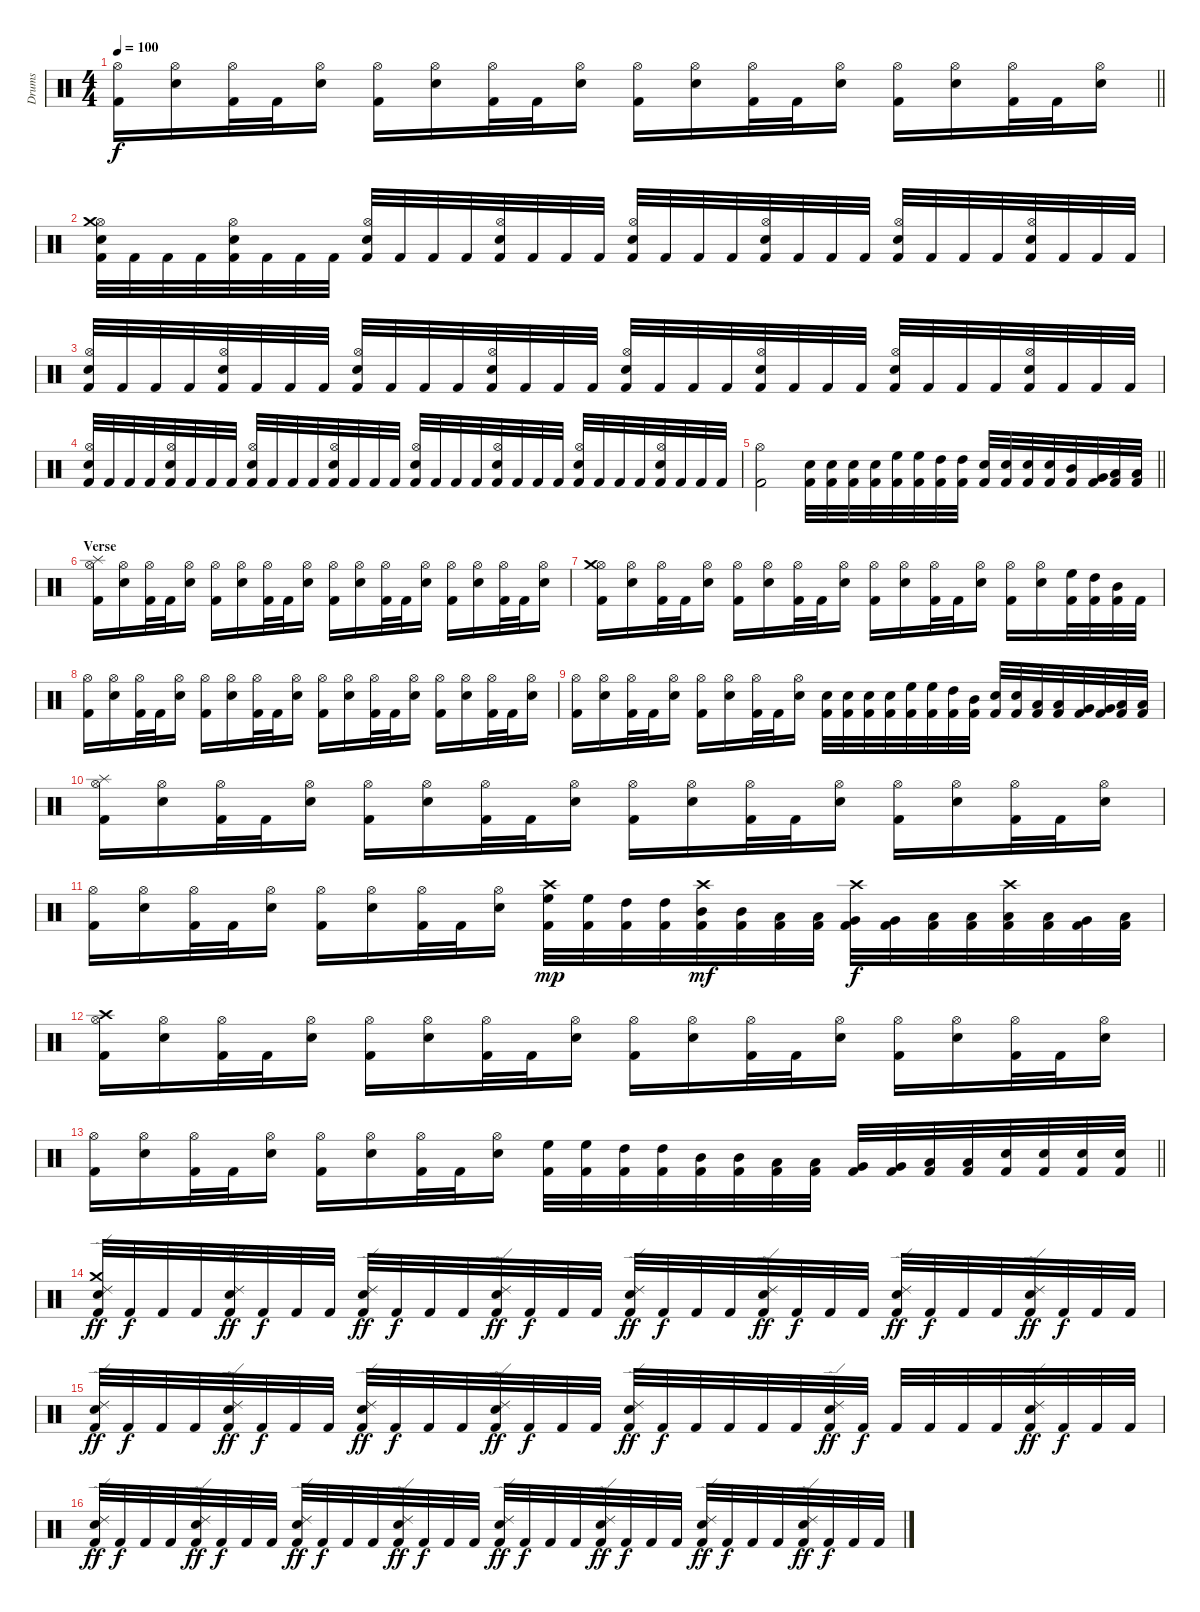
\track ("Drums" "Drums") {instrument percussion}
\staff {score}
\articulation defaults
\ts (4 4)
\tempo 100
\clef neutral
\barLineRight lightlight
\ks c
("Kick (hit) 2" "Hi-Hat (open)").16{dy f} ("Electric Snare (hit)" "Hi-Hat (open)").16 ("Kick (hit) 2" "Hi-Hat (open)").32 "Kick (hit) 2".32 ("Electric Snare (hit)" "Hi-Hat (open)").16 ("Kick (hit) 2" "Hi-Hat (open)").16 ("Electric Snare (hit)" "Hi-Hat (open)").16 ("Kick (hit) 2" "Hi-Hat (open)").32 "Kick (hit) 2".32 ("Electric Snare (hit)" "Hi-Hat (open)").16 ("Kick (hit) 2" "Hi-Hat (open)").16 ("Electric Snare (hit)" "Hi-Hat (open)").16 ("Kick (hit) 2" "Hi-Hat (open)").32 "Kick (hit) 2".32 ("Electric Snare (hit)" "Hi-Hat (open)").16 ("Kick (hit) 2" "Hi-Hat (open)").16 ("Electric Snare (hit)" "Hi-Hat (open)").16 ("Kick (hit) 2" "Hi-Hat (open)").32 "Kick (hit) 2".32 ("Electric Snare (hit)" "Hi-Hat (open)").16 |
\section ("" "")
("Kick (hit) 2" "Electric Snare (hit)" "Hi-Hat (open)" "Crash medium (hit)").32 "Kick (hit) 2".32 "Kick (hit) 2".32 "Kick (hit) 2".32 ("Kick (hit) 2" "Electric Snare (hit)" "Hi-Hat (open)").32 "Kick (hit) 2".32 "Kick (hit) 2".32 "Kick (hit) 2".32 ("Kick (hit) 2" "Electric Snare (hit)" "Hi-Hat (open)").32 "Kick (hit) 2".32 "Kick (hit) 2".32 "Kick (hit) 2".32 ("Kick (hit) 2" "Electric Snare (hit)" "Hi-Hat (open)").32 "Kick (hit) 2".32 "Kick (hit) 2".32 "Kick (hit) 2".32 ("Kick (hit) 2" "Electric Snare (hit)" "Hi-Hat (open)").32 "Kick (hit) 2".32 "Kick (hit) 2".32 "Kick (hit) 2".32 ("Kick (hit) 2" "Electric Snare (hit)" "Hi-Hat (open)").32 "Kick (hit) 2".32 "Kick (hit) 2".32 "Kick (hit) 2".32 ("Kick (hit) 2" "Electric Snare (hit)" "Hi-Hat (open)").32 "Kick (hit) 2".32 "Kick (hit) 2".32 "Kick (hit) 2".32 ("Kick (hit) 2" "Electric Snare (hit)" "Hi-Hat (open)").32 "Kick (hit) 2".32 "Kick (hit) 2".32 "Kick (hit) 2".32 |
("Kick (hit) 2" "Electric Snare (hit)" "Hi-Hat (open)").32 "Kick (hit) 2".32 "Kick (hit) 2".32 "Kick (hit) 2".32 ("Kick (hit) 2" "Electric Snare (hit)" "Hi-Hat (open)").32 "Kick (hit) 2".32 "Kick (hit) 2".32 "Kick (hit) 2".32 ("Kick (hit) 2" "Electric Snare (hit)" "Hi-Hat (open)").32 "Kick (hit) 2".32 "Kick (hit) 2".32 "Kick (hit) 2".32 ("Kick (hit) 2" "Electric Snare (hit)" "Hi-Hat (open)").32 "Kick (hit) 2".32 "Kick (hit) 2".32 "Kick (hit) 2".32 ("Kick (hit) 2" "Electric Snare (hit)" "Hi-Hat (open)").32 "Kick (hit) 2".32 "Kick (hit) 2".32 "Kick (hit) 2".32 ("Kick (hit) 2" "Electric Snare (hit)" "Hi-Hat (open)").32 "Kick (hit) 2".32 "Kick (hit) 2".32 "Kick (hit) 2".32 ("Kick (hit) 2" "Electric Snare (hit)" "Hi-Hat (open)").32 "Kick (hit) 2".32 "Kick (hit) 2".32 "Kick (hit) 2".32 ("Kick (hit) 2" "Electric Snare (hit)" "Hi-Hat (open)").32 "Kick (hit) 2".32 "Kick (hit) 2".32 "Kick (hit) 2".32 |
("Kick (hit) 2" "Electric Snare (hit)" "Hi-Hat (open)").32 "Kick (hit) 2".32 "Kick (hit) 2".32 "Kick (hit) 2".32 ("Kick (hit) 2" "Electric Snare (hit)" "Hi-Hat (open)").32 "Kick (hit) 2".32 "Kick (hit) 2".32 "Kick (hit) 2".32 ("Kick (hit) 2" "Electric Snare (hit)" "Hi-Hat (open)").32 "Kick (hit) 2".32 "Kick (hit) 2".32 "Kick (hit) 2".32 ("Kick (hit) 2" "Electric Snare (hit)" "Hi-Hat (open)").32 "Kick (hit) 2".32 "Kick (hit) 2".32 "Kick (hit) 2".32 ("Kick (hit) 2" "Electric Snare (hit)" "Hi-Hat (open)").32 "Kick (hit) 2".32 "Kick (hit) 2".32 "Kick (hit) 2".32 ("Kick (hit) 2" "Electric Snare (hit)" "Hi-Hat (open)").32 "Kick (hit) 2".32 "Kick (hit) 2".32 "Kick (hit) 2".32 ("Kick (hit) 2" "Electric Snare (hit)" "Hi-Hat (open)").32 "Kick (hit) 2".32 "Kick (hit) 2".32 "Kick (hit) 2".32 ("Kick (hit) 2" "Electric Snare (hit)" "Hi-Hat (open)").32 "Kick (hit) 2".32 "Kick (hit) 2".32 "Kick (hit) 2".32 |
\barLineRight lightlight
("Kick (hit) 2" "Hi-Hat (open)").2 ("Kick (hit) 2" "Electric Snare (hit)").32 ("Kick (hit) 2" "Electric Snare (hit)").32 ("Kick (hit) 2" "Electric Snare (hit)").32 ("Kick (hit) 2" "Electric Snare (hit)").32 ("Kick (hit) 2" "High Floor Tom (hit)").32 ("Kick (hit) 2" "High Floor Tom (hit)").32 ("Kick (hit) 2" "High Tom (hit)").32 ("Kick (hit) 2" "High Tom (hit)").32 ("Kick (hit) 2" "Electric Snare (hit)").32 ("Kick (hit) 2" "Electric Snare (hit)").32 ("Kick (hit) 2" "Electric Snare (hit)").32 ("Kick (hit) 2" "Electric Snare (hit)").32 ("Kick (hit) 2" "Mid Tom (hit)").32 ("Kick (hit) 2" "Very Low Tom (hit)").32 ("Kick (hit) 2" "Low Floor Tom (hit)").32 ("Kick (hit) 2" "Low Floor Tom (hit)").32 |
\section ("" "Verse")
("Kick (hit) 2" "Hi-Hat (open)" "Splash (hit)").16 ("Electric Snare (hit)" "Hi-Hat (open)").16 ("Kick (hit) 2" "Hi-Hat (open)").32 "Kick (hit) 2".32 ("Electric Snare (hit)" "Hi-Hat (open)").16 ("Kick (hit) 2" "Hi-Hat (open)").16 ("Electric Snare (hit)" "Hi-Hat (open)").16 ("Kick (hit) 2" "Hi-Hat (open)").32 "Kick (hit) 2".32 ("Electric Snare (hit)" "Hi-Hat (open)").16 ("Kick (hit) 2" "Hi-Hat (open)").16 ("Electric Snare (hit)" "Hi-Hat (open)").16 ("Kick (hit) 2" "Hi-Hat (open)").32 "Kick (hit) 2".32 ("Electric Snare (hit)" "Hi-Hat (open)").16 ("Kick (hit) 2" "Hi-Hat (open)").16 ("Electric Snare (hit)" "Hi-Hat (open)").16 ("Kick (hit) 2" "Hi-Hat (open)").32 "Kick (hit) 2".32 ("Electric Snare (hit)" "Hi-Hat (open)").16 |
("Kick (hit) 2" "Hi-Hat (open)" "Crash medium (hit)").16 ("Electric Snare (hit)" "Hi-Hat (open)").16 ("Kick (hit) 2" "Hi-Hat (open)").32 "Kick (hit) 2".32 ("Electric Snare (hit)" "Hi-Hat (open)").16 ("Kick (hit) 2" "Hi-Hat (open)").16 ("Electric Snare (hit)" "Hi-Hat (open)").16 ("Kick (hit) 2" "Hi-Hat (open)").32 "Kick (hit) 2".32 ("Electric Snare (hit)" "Hi-Hat (open)").16 ("Kick (hit) 2" "Hi-Hat (open)").16 ("Electric Snare (hit)" "Hi-Hat (open)").16 ("Kick (hit) 2" "Hi-Hat (open)").32 "Kick (hit) 2".32 ("Electric Snare (hit)" "Hi-Hat (open)").16 ("Kick (hit) 2" "Hi-Hat (open)").16 ("Electric Snare (hit)" "Hi-Hat (open)").16 ("Kick (hit) 2" "High Floor Tom (hit)").32 ("Kick (hit) 2" "High Tom (hit)").32 ("Kick (hit) 2" "Mid Tom (hit)").32 "Kick (hit) 2".32 |
("Kick (hit) 2" "Hi-Hat (open)").16 ("Electric Snare (hit)" "Hi-Hat (open)").16 ("Kick (hit) 2" "Hi-Hat (open)").32 "Kick (hit) 2".32 ("Electric Snare (hit)" "Hi-Hat (open)").16 ("Kick (hit) 2" "Hi-Hat (open)").16 ("Electric Snare (hit)" "Hi-Hat (open)").16 ("Kick (hit) 2" "Hi-Hat (open)").32 "Kick (hit) 2".32 ("Electric Snare (hit)" "Hi-Hat (open)").16 ("Kick (hit) 2" "Hi-Hat (open)").16 ("Electric Snare (hit)" "Hi-Hat (open)").16 ("Kick (hit) 2" "Hi-Hat (open)").32 "Kick (hit) 2".32 ("Electric Snare (hit)" "Hi-Hat (open)").16 ("Kick (hit) 2" "Hi-Hat (open)").16 ("Electric Snare (hit)" "Hi-Hat (open)").16 ("Kick (hit) 2" "Hi-Hat (open)").32 "Kick (hit) 2".32 ("Electric Snare (hit)" "Hi-Hat (open)").16 |
("Kick (hit) 2" "Hi-Hat (open)").16 ("Electric Snare (hit)" "Hi-Hat (open)").16 ("Kick (hit) 2" "Hi-Hat (open)").32 "Kick (hit) 2".32 ("Electric Snare (hit)" "Hi-Hat (open)").16 ("Kick (hit) 2" "Hi-Hat (open)").16 ("Electric Snare (hit)" "Hi-Hat (open)").16 ("Kick (hit) 2" "Hi-Hat (open)").32 "Kick (hit) 2".32 ("Electric Snare (hit)" "Hi-Hat (open)").16 ("Kick (hit) 2" "Electric Snare (hit)").32 ("Kick (hit) 2" "Electric Snare (hit)").32 ("Kick (hit) 2" "Electric Snare (hit)").32 ("Kick (hit) 2" "Electric Snare (hit)").32 ("Kick (hit) 2" "High Floor Tom (hit)").32 ("Kick (hit) 2" "High Floor Tom (hit)").32 ("Kick (hit) 2" "High Tom (hit)").32 ("Kick (hit) 2" "Mid Tom (hit)").32 ("Kick (hit) 2" "Electric Snare (hit)").32 ("Kick (hit) 2" "Electric Snare (hit)").32 ("Kick (hit) 2" "Low Tom (hit)").32 ("Kick (hit) 2" "Low Tom (hit)").32 ("Kick (hit) 2" "Very Low Tom (hit)").32 ("Kick (hit) 2" "Very Low Tom (hit)").32 ("Kick (hit) 2" "Low Floor Tom (hit)").32 ("Kick (hit) 2" "Low Floor Tom (hit)").32 |
("Kick (hit) 2" "Hi-Hat (open)" "Splash (hit)").16 ("Electric Snare (hit)" "Hi-Hat (open)").16 ("Kick (hit) 2" "Hi-Hat (open)").32 "Kick (hit) 2".32 ("Electric Snare (hit)" "Hi-Hat (open)").16 ("Kick (hit) 2" "Hi-Hat (open)").16 ("Electric Snare (hit)" "Hi-Hat (open)").16 ("Kick (hit) 2" "Hi-Hat (open)").32 "Kick (hit) 2".32 ("Electric Snare (hit)" "Hi-Hat (open)").16 ("Kick (hit) 2" "Hi-Hat (open)").16 ("Electric Snare (hit)" "Hi-Hat (open)").16 ("Kick (hit) 2" "Hi-Hat (open)").32 "Kick (hit) 2".32 ("Electric Snare (hit)" "Hi-Hat (open)").16 ("Kick (hit) 2" "Hi-Hat (open)").16 ("Electric Snare (hit)" "Hi-Hat (open)").16 ("Kick (hit) 2" "Hi-Hat (open)").32 "Kick (hit) 2".32 ("Electric Snare (hit)" "Hi-Hat (open)").16 |
("Kick (hit) 2" "Hi-Hat (open)").16 ("Electric Snare (hit)" "Hi-Hat (open)").16 ("Kick (hit) 2" "Hi-Hat (open)").32 "Kick (hit) 2".32 ("Electric Snare (hit)" "Hi-Hat (open)").16 ("Kick (hit) 2" "Hi-Hat (open)").16 ("Electric Snare (hit)" "Hi-Hat (open)").16 ("Kick (hit) 2" "Hi-Hat (open)").32 "Kick (hit) 2".32 ("Electric Snare (hit)" "Hi-Hat (open)").16 ("Kick (hit) 2" "High Floor Tom (hit)" "Crash high (hit)").32{dy mp} ("Kick (hit) 2" "High Floor Tom (hit)").32 ("Kick (hit) 2" "High Tom (hit)").32 ("Kick (hit) 2" "High Tom (hit)").32 ("Kick (hit) 2" "Mid Tom (hit)" "Crash high (hit)").32{dy mf} ("Kick (hit) 2" "Mid Tom (hit)").32 ("Kick (hit) 2" "Low Tom (hit)").32 ("Kick (hit) 2" "Low Tom (hit)").32 ("Kick (hit) 2" "Very Low Tom (hit)" "Crash high (hit)").32{dy f} ("Kick (hit) 2" "Very Low Tom (hit)").32 ("Kick (hit) 2" "Low Floor Tom (hit)").32 ("Kick (hit) 2" "Low Floor Tom (hit)").32 ("Kick (hit) 2" "Low Tom (hit)" "Crash high (hit)").32 ("Kick (hit) 2" "Low Tom (hit)").32 ("Kick (hit) 2" "Very Low Tom (hit)").32 ("Kick (hit) 2" "Low Floor Tom (hit)").32 |
("Kick (hit) 2" "Hi-Hat (open)" "Crash high (hit)").16 ("Electric Snare (hit)" "Hi-Hat (open)").16 ("Kick (hit) 2" "Hi-Hat (open)").32 "Kick (hit) 2".32 ("Electric Snare (hit)" "Hi-Hat (open)").16 ("Kick (hit) 2" "Hi-Hat (open)").16 ("Electric Snare (hit)" "Hi-Hat (open)").16 ("Kick (hit) 2" "Hi-Hat (open)").32 "Kick (hit) 2".32 ("Electric Snare (hit)" "Hi-Hat (open)").16 ("Kick (hit) 2" "Hi-Hat (open)").16 ("Electric Snare (hit)" "Hi-Hat (open)").16 ("Kick (hit) 2" "Hi-Hat (open)").32 "Kick (hit) 2".32 ("Electric Snare (hit)" "Hi-Hat (open)").16 ("Kick (hit) 2" "Hi-Hat (open)").16 ("Electric Snare (hit)" "Hi-Hat (open)").16 ("Kick (hit) 2" "Hi-Hat (open)").32 "Kick (hit) 2".32 ("Electric Snare (hit)" "Hi-Hat (open)").16 |
\barLineRight lightlight
("Kick (hit) 2" "Hi-Hat (open)").16 ("Electric Snare (hit)" "Hi-Hat (open)").16 ("Kick (hit) 2" "Hi-Hat (open)").32 "Kick (hit) 2".32 ("Electric Snare (hit)" "Hi-Hat (open)").16 ("Kick (hit) 2" "Hi-Hat (open)").16 ("Electric Snare (hit)" "Hi-Hat (open)").16 ("Kick (hit) 2" "Hi-Hat (open)").32 "Kick (hit) 2".32 ("Electric Snare (hit)" "Hi-Hat (open)").16 ("Kick (hit) 2" "High Floor Tom (hit)").32 ("Kick (hit) 2" "High Floor Tom (hit)").32 ("Kick (hit) 2" "High Tom (hit)").32 ("Kick (hit) 2" "High Tom (hit)").32 ("Kick (hit) 2" "Mid Tom (hit)").32 ("Kick (hit) 2" "Mid Tom (hit)").32 ("Kick (hit) 2" "Low Tom (hit)").32 ("Kick (hit) 2" "Low Tom (hit)").32 ("Kick (hit) 2" "Very Low Tom (hit)").32 ("Kick (hit) 2" "Very Low Tom (hit)").32 ("Kick (hit) 2" "Low Floor Tom (hit)").32 ("Kick (hit) 2" "Low Floor Tom (hit)").32 ("Kick (hit) 2" "Electric Snare (hit)").32 ("Kick (hit) 2" "Electric Snare (hit)").32 ("Kick (hit) 2" "Electric Snare (hit)").32 ("Kick (hit) 2" "Electric Snare (hit)").32 |
\section ("" "")
("Kick (hit) 2" "Electric Snare (hit)" "Ride (edge) 2" "Crash medium (hit)").32{dy ff} "Kick (hit) 2".32{dy f} "Kick (hit) 2".32 "Kick (hit) 2".32 ("Kick (hit) 2" "Electric Snare (hit)" "Ride (edge) 2").32{dy ff} "Kick (hit) 2".32{dy f} "Kick (hit) 2".32 "Kick (hit) 2".32 ("Kick (hit) 2" "Electric Snare (hit)" "Ride (edge) 2").32{dy ff} "Kick (hit) 2".32{dy f} "Kick (hit) 2".32 "Kick (hit) 2".32 ("Kick (hit) 2" "Electric Snare (hit)" "Ride (edge) 2").32{dy ff} "Kick (hit) 2".32{dy f} "Kick (hit) 2".32 "Kick (hit) 2".32 ("Kick (hit) 2" "Electric Snare (hit)" "Ride (edge) 2").32{dy ff} "Kick (hit) 2".32{dy f} "Kick (hit) 2".32 "Kick (hit) 2".32 ("Kick (hit) 2" "Electric Snare (hit)" "Ride (edge) 2").32{dy ff} "Kick (hit) 2".32{dy f} "Kick (hit) 2".32 "Kick (hit) 2".32 ("Kick (hit) 2" "Electric Snare (hit)" "Ride (edge) 2").32{dy ff} "Kick (hit) 2".32{dy f} "Kick (hit) 2".32 "Kick (hit) 2".32 ("Kick (hit) 2" "Electric Snare (hit)" "Ride (edge) 2").32{dy ff} "Kick (hit) 2".32{dy f} "Kick (hit) 2".32 "Kick (hit) 2".32 |
("Kick (hit) 2" "Electric Snare (hit)" "Ride (edge) 2").32{dy ff} "Kick (hit) 2".32{dy f} "Kick (hit) 2".32 "Kick (hit) 2".32 ("Kick (hit) 2" "Electric Snare (hit)" "Ride (edge) 2").32{dy ff} "Kick (hit) 2".32{dy f} "Kick (hit) 2".32 "Kick (hit) 2".32 ("Kick (hit) 2" "Electric Snare (hit)" "Ride (edge) 2").32{dy ff} "Kick (hit) 2".32{dy f} "Kick (hit) 2".32 "Kick (hit) 2".32 ("Kick (hit) 2" "Electric Snare (hit)" "Ride (edge) 2").32{dy ff} "Kick (hit) 2".32{dy f} "Kick (hit) 2".32 "Kick (hit) 2".32 ("Kick (hit) 2" "Electric Snare (hit)" "Ride (edge) 2").32{dy ff} "Kick (hit) 2".32{dy f} "Kick (hit) 2".32 "Kick (hit) 2".32 "Kick (hit) 2".32 "Kick (hit) 2".32 ("Kick (hit) 2" "Electric Snare (hit)" "Ride (edge) 2").32{dy ff} "Kick (hit) 2".32{dy f} "Kick (hit) 2".32 "Kick (hit) 2".32 "Kick (hit) 2".32 "Kick (hit) 2".32 ("Kick (hit) 2" "Electric Snare (hit)" "Ride (edge) 2").32{dy ff} "Kick (hit) 2".32{dy f} "Kick (hit) 2".32 "Kick (hit) 2".32 |
("Kick (hit) 2" "Electric Snare (hit)" "Ride (edge) 2").32{dy ff} "Kick (hit) 2".32{dy f} "Kick (hit) 2".32 "Kick (hit) 2".32 ("Kick (hit) 2" "Electric Snare (hit)" "Ride (edge) 2").32{dy ff} "Kick (hit) 2".32{dy f} "Kick (hit) 2".32 "Kick (hit) 2".32 ("Kick (hit) 2" "Electric Snare (hit)" "Ride (edge) 2").32{dy ff} "Kick (hit) 2".32{dy f} "Kick (hit) 2".32 "Kick (hit) 2".32 ("Kick (hit) 2" "Electric Snare (hit)" "Ride (edge) 2").32{dy ff} "Kick (hit) 2".32{dy f} "Kick (hit) 2".32 "Kick (hit) 2".32 ("Kick (hit) 2" "Electric Snare (hit)" "Ride (edge) 2").32{dy ff} "Kick (hit) 2".32{dy f} "Kick (hit) 2".32 "Kick (hit) 2".32 ("Kick (hit) 2" "Electric Snare (hit)" "Ride (edge) 2").32{dy ff} "Kick (hit) 2".32{dy f} "Kick (hit) 2".32 "Kick (hit) 2".32 ("Kick (hit) 2" "Electric Snare (hit)" "Ride (edge) 2").32{dy ff} "Kick (hit) 2".32{dy f} "Kick (hit) 2".32 "Kick (hit) 2".32 ("Kick (hit) 2" "Electric Snare (hit)" "Ride (edge) 2").32{dy ff} "Kick (hit) 2".32{dy f} "Kick (hit) 2".32 "Kick (hit) 2".32
